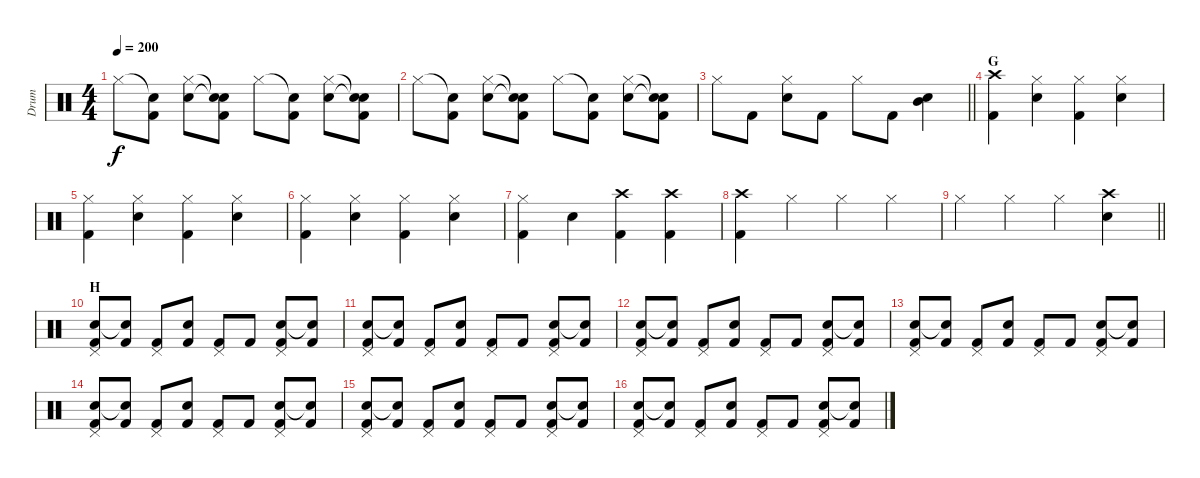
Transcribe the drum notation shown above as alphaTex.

\track ("Drum" "Drum") {instrument percussion}
\staff {score}
\articulation defaults
\ts (4 4)
\tempo 200
\clef neutral
\ks c "Hi-Hat (closed)".8{dy f}
("Snare (hit)"{t} "Kick (hit) 2").8 ("Hi-Hat (closed)" "Snare (hit) 2").8 ("Snare (hit)"{t} "Snare (hit)"{t} "Kick (hit) 2").8 "Hi-Hat (closed)".8 ("Snare (hit)"{t} "Kick (hit) 2").8 ("Hi-Hat (closed)" "Snare (hit) 2").8 ("Snare (hit)"{t} "Snare (hit)"{t} "Kick (hit) 2").8 |
"Hi-Hat (closed)".8 ("Snare (hit)"{t} "Kick (hit) 2").8 ("Hi-Hat (closed)" "Snare (hit) 2").8 ("Snare (hit)"{t} "Snare (hit)"{t} "Kick (hit) 2").8 "Hi-Hat (closed)".8 ("Snare (hit)"{t} "Kick (hit) 2").8 ("Hi-Hat (closed)" "Snare (hit) 2").8 ("Snare (hit)"{t} "Snare (hit)"{t} "Kick (hit) 2").8 |
\barLineRight lightlight "Hi-Hat (closed)".8 "Kick (hit) 2".8
("Hi-Hat (closed)" "Snare (hit) 2").8 "Kick (hit) 2".8 "Hi-Hat (closed)".8 "Kick (hit) 2".8 ("Snare (hit) 2" "Mid Tom (hit)").4 |
\section ("" "G")
("Crash high (hit)" "Kick (hit) 2").4 ("Hi-Hat (closed)" "Snare (hit) 2").4 ("Hi-Hat (closed)" "Kick (hit) 2").4 ("Hi-Hat (closed)" "Snare (hit) 2").4 |
("Hi-Hat (closed)" "Kick (hit) 2").4 ("Hi-Hat (closed)" "Snare (hit) 2").4 ("Hi-Hat (closed)" "Kick (hit) 2").4 ("Hi-Hat (closed)" "Snare (hit) 2").4 |
("Hi-Hat (closed)" "Kick (hit) 2").4 ("Hi-Hat (closed)" "Snare (hit) 2").4 ("Hi-Hat (closed)" "Kick (hit) 2").4 ("Hi-Hat (closed)" "Snare (hit) 2").4 |
("Hi-Hat (closed)" "Kick (hit) 2").4 "Snare (hit) 2".4 ("Crash high (hit)" "Kick (hit) 2").4 ("Crash high (hit)" "Kick (hit) 2").4 |
("Crash high (hit)" "Kick (hit) 2").4 "Hi-Hat (closed)".4 "Hi-Hat (closed)".4 "Hi-Hat (closed)".4 |
\barLineRight lightlight "Hi-Hat (closed)".4 "Hi-Hat (closed)".4 "Hi-Hat (closed)".4
("Crash high (hit)" "Snare (hit) 2").4 |
\section ("" "H")
("Snare (hit) 2" "Pedal Hi-Hat (hit)" "Kick (hit) 2").8 ("Snare (hit)"{t} "Kick (hit) 2").8 ("Pedal Hi-Hat (hit)" "Kick (hit) 2").8 ("Snare (hit) 2" "Kick (hit) 2").8 ("Pedal Hi-Hat (hit)" "Kick (hit) 2").8 "Kick (hit) 2".8 ("Snare (hit) 2" "Pedal Hi-Hat (hit)" "Kick (hit) 2").8 ("Snare (hit)"{t} "Kick (hit) 2").8 |
("Snare (hit) 2" "Pedal Hi-Hat (hit)" "Kick (hit) 2").8 ("Snare (hit)"{t} "Kick (hit) 2").8 ("Pedal Hi-Hat (hit)" "Kick (hit) 2").8 ("Snare (hit) 2" "Kick (hit) 2").8 ("Pedal Hi-Hat (hit)" "Kick (hit) 2").8 "Kick (hit) 2".8 ("Snare (hit) 2" "Pedal Hi-Hat (hit)" "Kick (hit) 2").8 ("Snare (hit)"{t} "Kick (hit) 2").8 |
("Snare (hit) 2" "Pedal Hi-Hat (hit)" "Kick (hit) 2").8 ("Snare (hit)"{t} "Kick (hit) 2").8 ("Pedal Hi-Hat (hit)" "Kick (hit) 2").8 ("Snare (hit) 2" "Kick (hit) 2").8 ("Pedal Hi-Hat (hit)" "Kick (hit) 2").8 "Kick (hit) 2".8 ("Snare (hit) 2" "Pedal Hi-Hat (hit)" "Kick (hit) 2").8 ("Snare (hit)"{t} "Kick (hit) 2").8 |
("Snare (hit) 2" "Pedal Hi-Hat (hit)" "Kick (hit) 2").8 ("Snare (hit)"{t} "Kick (hit) 2").8 ("Pedal Hi-Hat (hit)" "Kick (hit) 2").8 ("Snare (hit) 2" "Kick (hit) 2").8 ("Pedal Hi-Hat (hit)" "Kick (hit) 2").8 "Kick (hit) 2".8 ("Snare (hit) 2" "Pedal Hi-Hat (hit)" "Kick (hit) 2").8 ("Snare (hit)"{t} "Kick (hit) 2").8 |
("Snare (hit) 2" "Pedal Hi-Hat (hit)" "Kick (hit) 2").8 ("Snare (hit)"{t} "Kick (hit) 2").8 ("Pedal Hi-Hat (hit)" "Kick (hit) 2").8 ("Snare (hit) 2" "Kick (hit) 2").8 ("Pedal Hi-Hat (hit)" "Kick (hit) 2").8 "Kick (hit) 2".8 ("Snare (hit) 2" "Pedal Hi-Hat (hit)" "Kick (hit) 2").8 ("Snare (hit)"{t} "Kick (hit) 2").8 |
("Snare (hit) 2" "Pedal Hi-Hat (hit)" "Kick (hit) 2").8 ("Snare (hit)"{t} "Kick (hit) 2").8 ("Pedal Hi-Hat (hit)" "Kick (hit) 2").8 ("Snare (hit) 2" "Kick (hit) 2").8 ("Pedal Hi-Hat (hit)" "Kick (hit) 2").8 "Kick (hit) 2".8 ("Snare (hit) 2" "Pedal Hi-Hat (hit)" "Kick (hit) 2").8 ("Snare (hit)"{t} "Kick (hit) 2").8 |
("Snare (hit) 2" "Pedal Hi-Hat (hit)" "Kick (hit) 2").8 ("Snare (hit)"{t} "Kick (hit) 2").8 ("Pedal Hi-Hat (hit)" "Kick (hit) 2").8 ("Snare (hit) 2" "Kick (hit) 2").8 ("Pedal Hi-Hat (hit)" "Kick (hit) 2").8 "Kick (hit) 2".8 ("Snare (hit) 2" "Pedal Hi-Hat (hit)" "Kick (hit) 2").8 ("Snare (hit)"{t} "Kick (hit) 2").8
